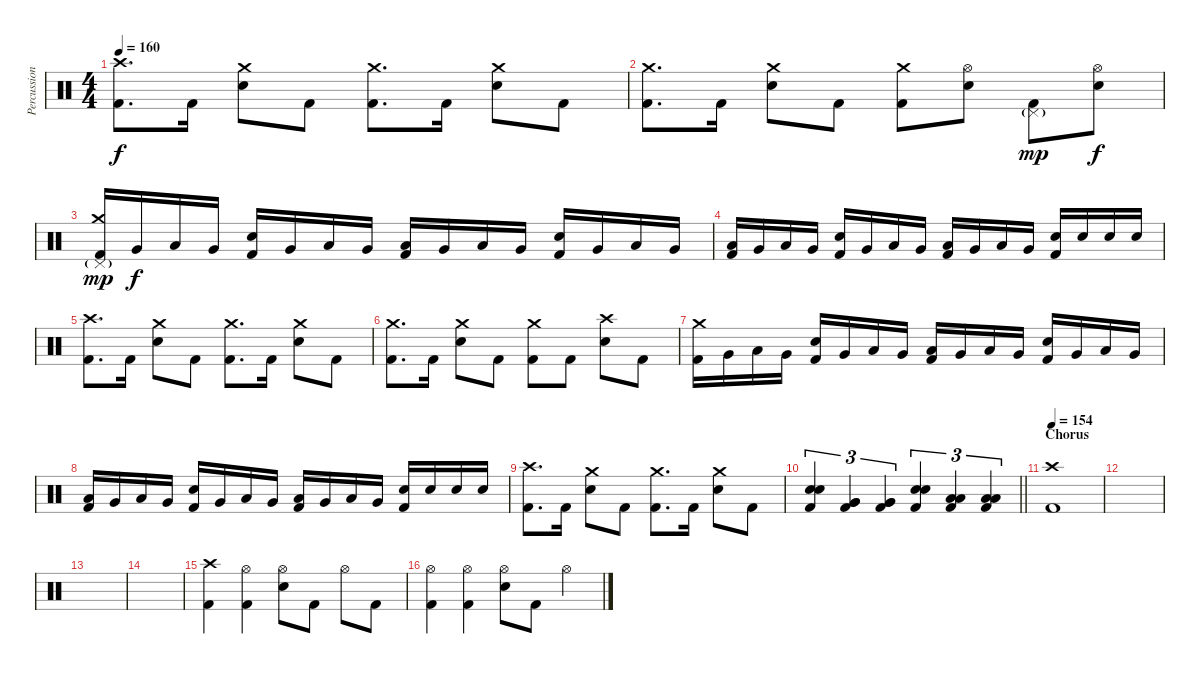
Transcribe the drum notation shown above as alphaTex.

\track ("Percussion" "Percussion") {instrument percussion}
\staff {score}
\articulation defaults
\ts (4 4)
\tempo 160
\clef neutral
\ks c
("Crash high (hit)" "Kick (hit) 2").8{d dy f} "Kick (hit) 2".16 ("Crash medium (hit)" "Electric Snare (hit)").8 "Kick (hit) 2".8 ("Crash medium (hit)" "Kick (hit) 2").8{d} "Kick (hit) 2".16 ("Crash medium (hit)" "Electric Snare (hit)").8 "Kick (hit) 2".8 |
("Crash medium (hit)" "Kick (hit) 2").8{d} "Kick (hit) 2".16 ("Crash medium (hit)" "Electric Snare (hit)").8 "Kick (hit) 2".8 ("Crash medium (hit)" "Kick (hit) 2").8 ("Hi-Hat (open)" "Electric Snare (hit)").8 ("Pedal Hi-Hat (hit)"{g} "Kick (hit) 2").8{dy mp} ("Hi-Hat (open)" "Electric Snare (hit)").8{dy f} |
("Crash medium (hit)" "Pedal Hi-Hat (hit)"{g} "Kick (hit) 2").16{dy mp} "Very Low Tom (hit)".16{dy f} "Low Floor Tom (hit)".16 "Very Low Tom (hit)".16 ("Electric Snare (hit)" "Kick (hit) 2").16 "Very Low Tom (hit)".16 "Low Floor Tom (hit)".16 "Very Low Tom (hit)".16 ("Low Floor Tom (hit)" "Kick (hit) 2").16 "Very Low Tom (hit)".16 "Low Floor Tom (hit)".16 "Very Low Tom (hit)".16 ("Electric Snare (hit)" "Kick (hit) 2").16 "Very Low Tom (hit)".16 "Low Floor Tom (hit)".16 "Very Low Tom (hit)".16 |
("Low Floor Tom (hit)" "Kick (hit) 2").16 "Very Low Tom (hit)".16 "Low Floor Tom (hit)".16 "Very Low Tom (hit)".16 ("Electric Snare (hit)" "Kick (hit) 2").16 "Very Low Tom (hit)".16 "Low Floor Tom (hit)".16 "Very Low Tom (hit)".16 ("Low Floor Tom (hit)" "Kick (hit) 2").16 "Very Low Tom (hit)".16 "Low Floor Tom (hit)".16 "Very Low Tom (hit)".16 ("Electric Snare (hit)" "Kick (hit) 2").16 "Electric Snare (hit)".16 "Electric Snare (hit)".16 "Electric Snare (hit)".16 |
("Crash high (hit)" "Kick (hit) 2").8{d} "Kick (hit) 2".16 ("Crash medium (hit)" "Electric Snare (hit)").8 "Kick (hit) 2".8 ("Crash medium (hit)" "Kick (hit) 2").8{d} "Kick (hit) 2".16 ("Crash medium (hit)" "Electric Snare (hit)").8 "Kick (hit) 2".8 |
("Crash medium (hit)" "Kick (hit) 2").8{d} "Kick (hit) 2".16 ("Crash medium (hit)" "Electric Snare (hit)").8 "Kick (hit) 2".8 ("Crash medium (hit)" "Kick (hit) 2").8 "Kick (hit) 2".8 ("Crash high (hit)" "Electric Snare (hit)").8 "Kick (hit) 2".8 |
("Crash medium (hit)" "Kick (hit) 2").16 "Very Low Tom (hit)".16 "Low Floor Tom (hit)".16 "Very Low Tom (hit)".16 ("Electric Snare (hit)" "Kick (hit) 2").16 "Very Low Tom (hit)".16 "Low Floor Tom (hit)".16 "Very Low Tom (hit)".16 ("Low Floor Tom (hit)" "Kick (hit) 2").16 "Very Low Tom (hit)".16 "Low Floor Tom (hit)".16 "Very Low Tom (hit)".16 ("Electric Snare (hit)" "Kick (hit) 2").16 "Very Low Tom (hit)".16 "Low Floor Tom (hit)".16 "Very Low Tom (hit)".16 |
("Low Floor Tom (hit)" "Kick (hit) 2").16 "Very Low Tom (hit)".16 "Low Floor Tom (hit)".16 "Very Low Tom (hit)".16 ("Electric Snare (hit)" "Kick (hit) 2").16 "Very Low Tom (hit)".16 "Low Floor Tom (hit)".16 "Very Low Tom (hit)".16 ("Low Floor Tom (hit)" "Kick (hit) 2").16 "Very Low Tom (hit)".16 "Low Floor Tom (hit)".16 "Very Low Tom (hit)".16 ("Electric Snare (hit)" "Kick (hit) 2").16 "Electric Snare (hit)".16 "Electric Snare (hit)".16 "Electric Snare (hit)".16 |
("Crash high (hit)" "Kick (hit) 2").8{d} "Kick (hit) 2".16 ("Crash medium (hit)" "Electric Snare (hit)").8 "Kick (hit) 2".8 ("Crash medium (hit)" "Kick (hit) 2").8{d} "Kick (hit) 2".16 ("Crash medium (hit)" "Electric Snare (hit)").8 "Kick (hit) 2".8 |
\barLineRight lightlight
("Electric Snare (hit)" "Electric Snare (hit)" "Kick (hit) 2").4{tu (3 2)} ("Very Low Tom (hit)" "Very Low Tom (hit)" "Kick (hit) 2").4{tu (3 2)} ("Very Low Tom (hit)" "Very Low Tom (hit)" "Kick (hit) 2").4{tu (3 2)} ("Electric Snare (hit)" "Electric Snare (hit)" "Kick (hit) 2").4{tu (3 2)} ("Low Floor Tom (hit)" "Low Floor Tom (hit)" "Kick (hit) 2").4{tu (3 2)} ("Low Floor Tom (hit)" "Low Floor Tom (hit)" "Kick (hit) 2").4{tu (3 2)} |
\section ("" "Chorus")
\tempo 154
("Crash high (hit)" "Kick (hit) 2").1 |
|
|
|
("Crash high (hit)" "Kick (hit) 2").4 ("Hi-Hat (open)" "Kick (hit) 2").4 ("Hi-Hat (open)" "Electric Snare (hit)").8 "Kick (hit) 2".8 "Hi-Hat (open)".8 "Kick (hit) 2".8 |
("Hi-Hat (open)" "Kick (hit) 2").4 ("Hi-Hat (open)" "Kick (hit) 2").4 ("Hi-Hat (open)" "Electric Snare (hit)").8 "Kick (hit) 2".8 "Hi-Hat (open)".4
